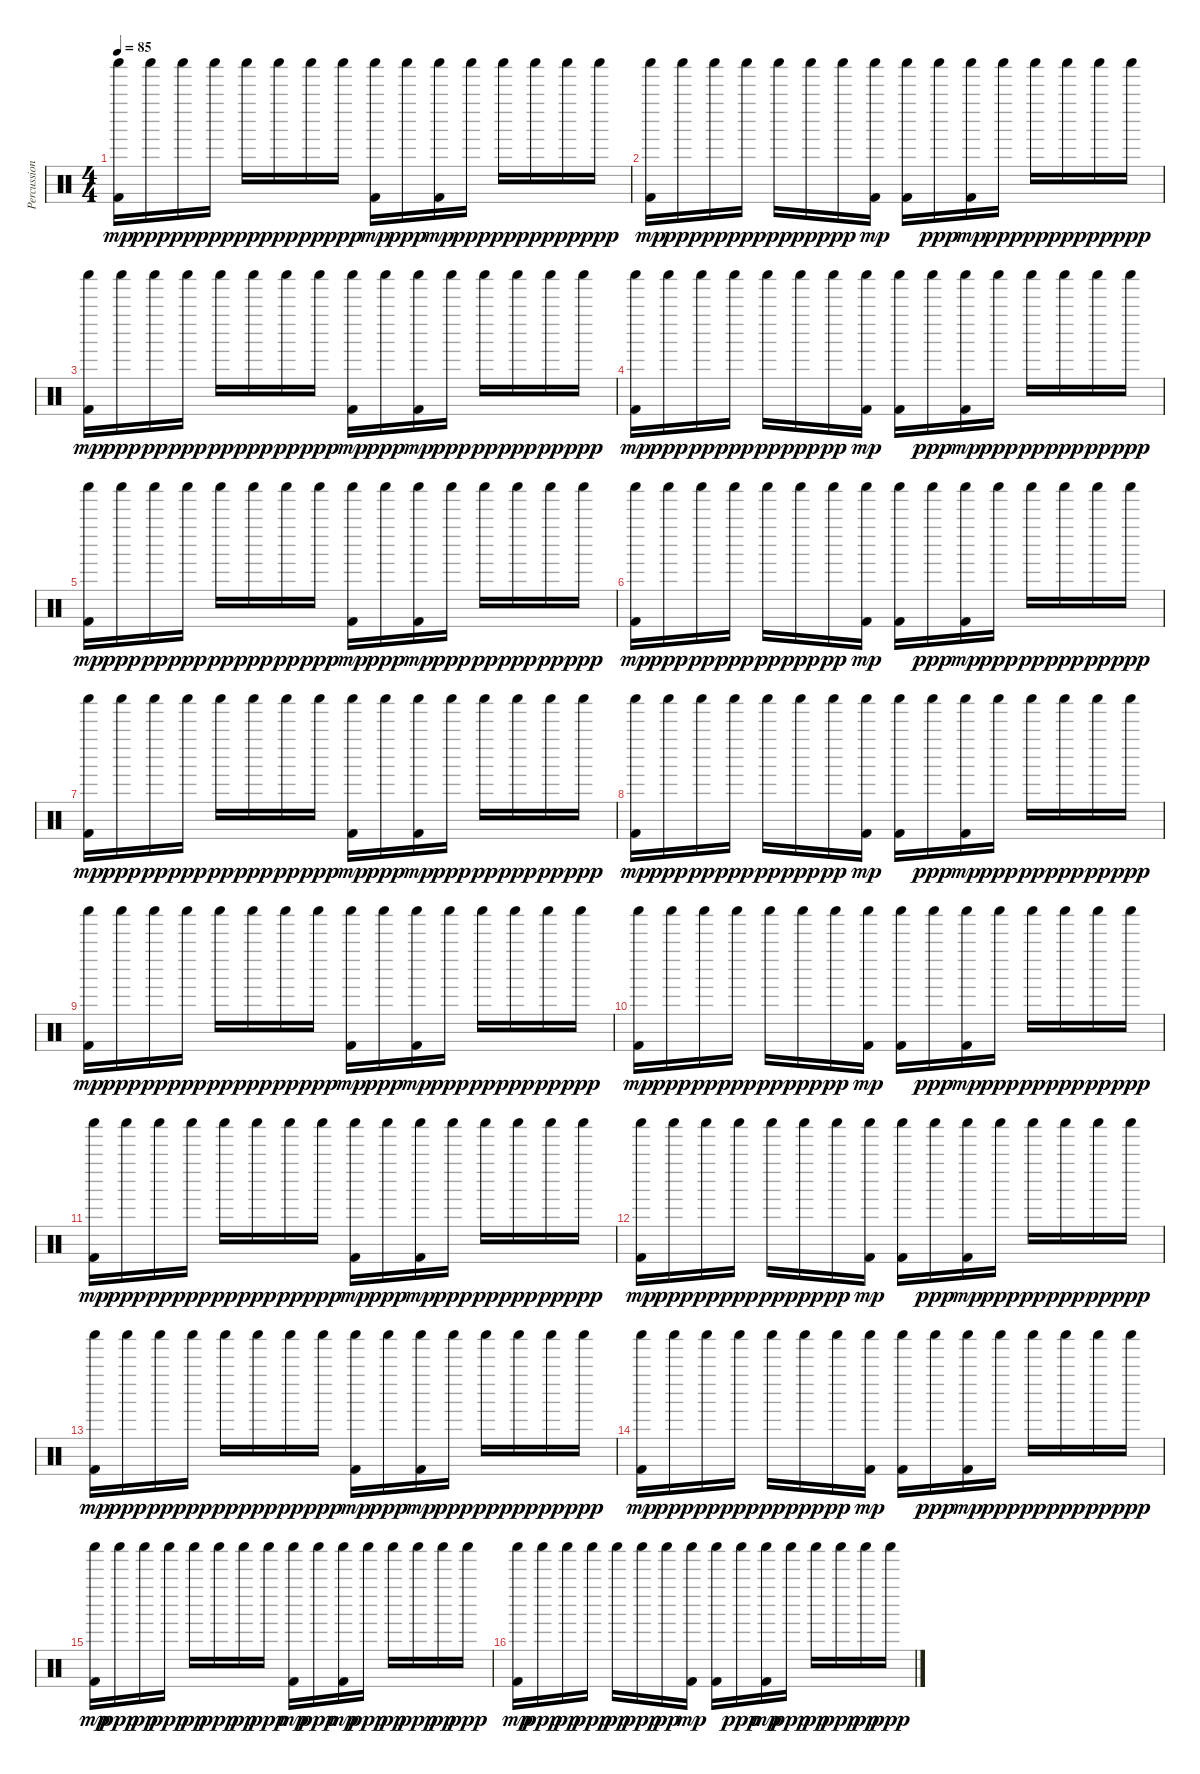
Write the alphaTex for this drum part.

\track ("Percussion" "Percussion") {instrument percussion}
\staff {score}
\articulation defaults
\ts (4 4)
\tempo 85
\clef neutral
\ks c
("Shaker (hit)" "Kick (hit) 2").16{dy mp} "Shaker (hit)".16{dy ppp} "Shaker (hit)".16{dy pp} "Shaker (hit)".16{dy ppp} "Shaker (hit)".16{dy pp} "Shaker (hit)".16{dy ppp} "Shaker (hit)".16{dy pp} "Shaker (hit)".16{dy ppp} ("Shaker (hit)" "Kick (hit) 2").16{dy mp} "Shaker (hit)".16{dy ppp} ("Shaker (hit)" "Kick (hit) 2").16{dy mp} "Shaker (hit)".16{dy ppp} "Shaker (hit)".16{dy pp} "Shaker (hit)".16{dy ppp} "Shaker (hit)".16{dy pp} "Shaker (hit)".16{dy ppp} |
("Shaker (hit)" "Kick (hit) 2").16{dy mp} "Shaker (hit)".16{dy ppp} "Shaker (hit)".16{dy pp} "Shaker (hit)".16{dy ppp} "Shaker (hit)".16{dy pp} "Shaker (hit)".16{dy ppp} "Shaker (hit)".16{dy pp} ("Shaker (hit)" "Kick (hit) 2").16{dy mp} ("Shaker (hit)" "Kick (hit) 2").16 "Shaker (hit)".16{dy ppp} ("Shaker (hit)" "Kick (hit) 2").16{dy mp} "Shaker (hit)".16{dy ppp} "Shaker (hit)".16{dy pp} "Shaker (hit)".16{dy ppp} "Shaker (hit)".16{dy pp} "Shaker (hit)".16{dy ppp} |
("Shaker (hit)" "Kick (hit) 2").16{dy mp} "Shaker (hit)".16{dy ppp} "Shaker (hit)".16{dy pp} "Shaker (hit)".16{dy ppp} "Shaker (hit)".16{dy pp} "Shaker (hit)".16{dy ppp} "Shaker (hit)".16{dy pp} "Shaker (hit)".16{dy ppp} ("Shaker (hit)" "Kick (hit) 2").16{dy mp} "Shaker (hit)".16{dy ppp} ("Shaker (hit)" "Kick (hit) 2").16{dy mp} "Shaker (hit)".16{dy ppp} "Shaker (hit)".16{dy pp} "Shaker (hit)".16{dy ppp} "Shaker (hit)".16{dy pp} "Shaker (hit)".16{dy ppp} |
("Shaker (hit)" "Kick (hit) 2").16{dy mp} "Shaker (hit)".16{dy ppp} "Shaker (hit)".16{dy pp} "Shaker (hit)".16{dy ppp} "Shaker (hit)".16{dy pp} "Shaker (hit)".16{dy ppp} "Shaker (hit)".16{dy pp} ("Shaker (hit)" "Kick (hit) 2").16{dy mp} ("Shaker (hit)" "Kick (hit) 2").16 "Shaker (hit)".16{dy ppp} ("Shaker (hit)" "Kick (hit) 2").16{dy mp} "Shaker (hit)".16{dy ppp} "Shaker (hit)".16{dy pp} "Shaker (hit)".16{dy ppp} "Shaker (hit)".16{dy pp} "Shaker (hit)".16{dy ppp} |
("Shaker (hit)" "Kick (hit) 2").16{dy mp} "Shaker (hit)".16{dy ppp} "Shaker (hit)".16{dy pp} "Shaker (hit)".16{dy ppp} "Shaker (hit)".16{dy pp} "Shaker (hit)".16{dy ppp} "Shaker (hit)".16{dy pp} "Shaker (hit)".16{dy ppp} ("Shaker (hit)" "Kick (hit) 2").16{dy mp} "Shaker (hit)".16{dy ppp} ("Shaker (hit)" "Kick (hit) 2").16{dy mp} "Shaker (hit)".16{dy ppp} "Shaker (hit)".16{dy pp} "Shaker (hit)".16{dy ppp} "Shaker (hit)".16{dy pp} "Shaker (hit)".16{dy ppp} |
("Shaker (hit)" "Kick (hit) 2").16{dy mp} "Shaker (hit)".16{dy ppp} "Shaker (hit)".16{dy pp} "Shaker (hit)".16{dy ppp} "Shaker (hit)".16{dy pp} "Shaker (hit)".16{dy ppp} "Shaker (hit)".16{dy pp} ("Shaker (hit)" "Kick (hit) 2").16{dy mp} ("Shaker (hit)" "Kick (hit) 2").16 "Shaker (hit)".16{dy ppp} ("Shaker (hit)" "Kick (hit) 2").16{dy mp} "Shaker (hit)".16{dy ppp} "Shaker (hit)".16{dy pp} "Shaker (hit)".16{dy ppp} "Shaker (hit)".16{dy pp} "Shaker (hit)".16{dy ppp} |
("Shaker (hit)" "Kick (hit) 2").16{dy mp} "Shaker (hit)".16{dy ppp} "Shaker (hit)".16{dy pp} "Shaker (hit)".16{dy ppp} "Shaker (hit)".16{dy pp} "Shaker (hit)".16{dy ppp} "Shaker (hit)".16{dy pp} "Shaker (hit)".16{dy ppp} ("Shaker (hit)" "Kick (hit) 2").16{dy mp} "Shaker (hit)".16{dy ppp} ("Shaker (hit)" "Kick (hit) 2").16{dy mp} "Shaker (hit)".16{dy ppp} "Shaker (hit)".16{dy pp} "Shaker (hit)".16{dy ppp} "Shaker (hit)".16{dy pp} "Shaker (hit)".16{dy ppp} |
("Shaker (hit)" "Kick (hit) 2").16{dy mp} "Shaker (hit)".16{dy ppp} "Shaker (hit)".16{dy pp} "Shaker (hit)".16{dy ppp} "Shaker (hit)".16{dy pp} "Shaker (hit)".16{dy ppp} "Shaker (hit)".16{dy pp} ("Shaker (hit)" "Kick (hit) 2").16{dy mp} ("Shaker (hit)" "Kick (hit) 2").16 "Shaker (hit)".16{dy ppp} ("Shaker (hit)" "Kick (hit) 2").16{dy mp} "Shaker (hit)".16{dy ppp} "Shaker (hit)".16{dy pp} "Shaker (hit)".16{dy ppp} "Shaker (hit)".16{dy pp} "Shaker (hit)".16{dy ppp} |
("Shaker (hit)" "Kick (hit) 2").16{dy mp} "Shaker (hit)".16{dy ppp} "Shaker (hit)".16{dy pp} "Shaker (hit)".16{dy ppp} "Shaker (hit)".16{dy pp} "Shaker (hit)".16{dy ppp} "Shaker (hit)".16{dy pp} "Shaker (hit)".16{dy ppp} ("Shaker (hit)" "Kick (hit) 2").16{dy mp} "Shaker (hit)".16{dy ppp} ("Shaker (hit)" "Kick (hit) 2").16{dy mp} "Shaker (hit)".16{dy ppp} "Shaker (hit)".16{dy pp} "Shaker (hit)".16{dy ppp} "Shaker (hit)".16{dy pp} "Shaker (hit)".16{dy ppp} |
("Shaker (hit)" "Kick (hit) 2").16{dy mp} "Shaker (hit)".16{dy ppp} "Shaker (hit)".16{dy pp} "Shaker (hit)".16{dy ppp} "Shaker (hit)".16{dy pp} "Shaker (hit)".16{dy ppp} "Shaker (hit)".16{dy pp} ("Shaker (hit)" "Kick (hit) 2").16{dy mp} ("Shaker (hit)" "Kick (hit) 2").16 "Shaker (hit)".16{dy ppp} ("Shaker (hit)" "Kick (hit) 2").16{dy mp} "Shaker (hit)".16{dy ppp} "Shaker (hit)".16{dy pp} "Shaker (hit)".16{dy ppp} "Shaker (hit)".16{dy pp} "Shaker (hit)".16{dy ppp} |
("Shaker (hit)" "Kick (hit) 2").16{dy mp} "Shaker (hit)".16{dy ppp} "Shaker (hit)".16{dy pp} "Shaker (hit)".16{dy ppp} "Shaker (hit)".16{dy pp} "Shaker (hit)".16{dy ppp} "Shaker (hit)".16{dy pp} "Shaker (hit)".16{dy ppp} ("Shaker (hit)" "Kick (hit) 2").16{dy mp} "Shaker (hit)".16{dy ppp} ("Shaker (hit)" "Kick (hit) 2").16{dy mp} "Shaker (hit)".16{dy ppp} "Shaker (hit)".16{dy pp} "Shaker (hit)".16{dy ppp} "Shaker (hit)".16{dy pp} "Shaker (hit)".16{dy ppp} |
("Shaker (hit)" "Kick (hit) 2").16{dy mp} "Shaker (hit)".16{dy ppp} "Shaker (hit)".16{dy pp} "Shaker (hit)".16{dy ppp} "Shaker (hit)".16{dy pp} "Shaker (hit)".16{dy ppp} "Shaker (hit)".16{dy pp} ("Shaker (hit)" "Kick (hit) 2").16{dy mp} ("Shaker (hit)" "Kick (hit) 2").16 "Shaker (hit)".16{dy ppp} ("Shaker (hit)" "Kick (hit) 2").16{dy mp} "Shaker (hit)".16{dy ppp} "Shaker (hit)".16{dy pp} "Shaker (hit)".16{dy ppp} "Shaker (hit)".16{dy pp} "Shaker (hit)".16{dy ppp} |
("Shaker (hit)" "Kick (hit) 2").16{dy mp} "Shaker (hit)".16{dy ppp} "Shaker (hit)".16{dy pp} "Shaker (hit)".16{dy ppp} "Shaker (hit)".16{dy pp} "Shaker (hit)".16{dy ppp} "Shaker (hit)".16{dy pp} "Shaker (hit)".16{dy ppp} ("Shaker (hit)" "Kick (hit) 2").16{dy mp} "Shaker (hit)".16{dy ppp} ("Shaker (hit)" "Kick (hit) 2").16{dy mp} "Shaker (hit)".16{dy ppp} "Shaker (hit)".16{dy pp} "Shaker (hit)".16{dy ppp} "Shaker (hit)".16{dy pp} "Shaker (hit)".16{dy ppp} |
("Shaker (hit)" "Kick (hit) 2").16{dy mp} "Shaker (hit)".16{dy ppp} "Shaker (hit)".16{dy pp} "Shaker (hit)".16{dy ppp} "Shaker (hit)".16{dy pp} "Shaker (hit)".16{dy ppp} "Shaker (hit)".16{dy pp} ("Shaker (hit)" "Kick (hit) 2").16{dy mp} ("Shaker (hit)" "Kick (hit) 2").16 "Shaker (hit)".16{dy ppp} ("Shaker (hit)" "Kick (hit) 2").16{dy mp} "Shaker (hit)".16{dy ppp} "Shaker (hit)".16{dy pp} "Shaker (hit)".16{dy ppp} "Shaker (hit)".16{dy pp} "Shaker (hit)".16{dy ppp} |
("Shaker (hit)" "Kick (hit) 2").16{dy mp} "Shaker (hit)".16{dy ppp} "Shaker (hit)".16{dy pp} "Shaker (hit)".16{dy ppp} "Shaker (hit)".16{dy pp} "Shaker (hit)".16{dy ppp} "Shaker (hit)".16{dy pp} "Shaker (hit)".16{dy ppp} ("Shaker (hit)" "Kick (hit) 2").16{dy mp} "Shaker (hit)".16{dy ppp} ("Shaker (hit)" "Kick (hit) 2").16{dy mp} "Shaker (hit)".16{dy ppp} "Shaker (hit)".16{dy pp} "Shaker (hit)".16{dy ppp} "Shaker (hit)".16{dy pp} "Shaker (hit)".16{dy ppp} |
("Shaker (hit)" "Kick (hit) 2").16{dy mp} "Shaker (hit)".16{dy ppp} "Shaker (hit)".16{dy pp} "Shaker (hit)".16{dy ppp} "Shaker (hit)".16{dy pp} "Shaker (hit)".16{dy ppp} "Shaker (hit)".16{dy pp} ("Shaker (hit)" "Kick (hit) 2").16{dy mp} ("Shaker (hit)" "Kick (hit) 2").16 "Shaker (hit)".16{dy ppp} ("Shaker (hit)" "Kick (hit) 2").16{dy mp} "Shaker (hit)".16{dy ppp} "Shaker (hit)".16{dy pp} "Shaker (hit)".16{dy ppp} "Shaker (hit)".16{dy pp} "Shaker (hit)".16{dy ppp}
